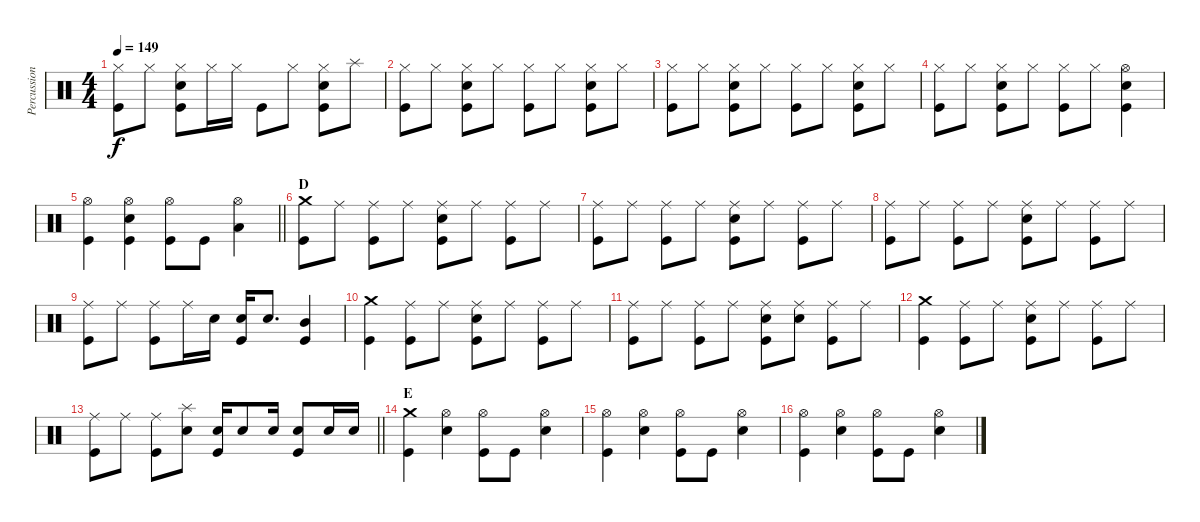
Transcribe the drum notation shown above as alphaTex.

\track ("Percussions" "Percussion") {instrument percussion}
\staff {score}
\articulation defaults
\ts (4 4)
\tempo 149
\clef neutral
\ks c
("Hi-Hat (closed)" "Kick (hit)").8{dy f} "Hi-Hat (closed)".8 ("Hi-Hat (closed)" "Electric Snare (hit)" "Kick (hit)").8 "Hi-Hat (closed)".16 "Hi-Hat (closed)".16 "Kick (hit)".8 "Hi-Hat (closed)".8 ("Hi-Hat (closed)" "Electric Snare (hit)" "Kick (hit)").8 "Splash (hit)".8 |
("Hi-Hat (closed)" "Kick (hit)").8 "Hi-Hat (closed)".8 ("Hi-Hat (closed)" "Electric Snare (hit)" "Kick (hit)").8 "Hi-Hat (closed)".8 ("Hi-Hat (closed)" "Kick (hit)").8 "Hi-Hat (closed)".8 ("Hi-Hat (closed)" "Electric Snare (hit)" "Kick (hit)").8 "Hi-Hat (closed)".8 |
("Hi-Hat (closed)" "Kick (hit)").8 "Hi-Hat (closed)".8 ("Hi-Hat (closed)" "Electric Snare (hit)" "Kick (hit)").8 "Hi-Hat (closed)".8 ("Hi-Hat (closed)" "Kick (hit)").8 "Hi-Hat (closed)".8 ("Hi-Hat (closed)" "Electric Snare (hit)" "Kick (hit)").8 "Hi-Hat (closed)".8 |
("Hi-Hat (closed)" "Kick (hit)").8 "Hi-Hat (closed)".8 ("Hi-Hat (closed)" "Electric Snare (hit)" "Kick (hit)").8 "Hi-Hat (closed)".8 ("Hi-Hat (closed)" "Kick (hit)").8 "Hi-Hat (closed)".8 ("Hi-Hat (open)" "Electric Snare (hit)" "Kick (hit)").4 |
\barLineRight lightlight
("Hi-Hat (open)" "Kick (hit)").4 ("Hi-Hat (open)" "Electric Snare (hit)" "Kick (hit)").4 ("Hi-Hat (open)" "Kick (hit)").8 "Kick (hit)".8 ("Hi-Hat (open)" "Low Tom (hit)").4 |
\section ("" "D")
("Crash medium (hit)" "Kick (hit)").8 "Ride (middle)".8 ("Ride (middle)" "Kick (hit)").8 "Ride (middle)".8 ("Ride (middle)" "Electric Snare (hit)" "Kick (hit)").8 "Ride (middle)".8 ("Ride (middle)" "Kick (hit)").8 "Ride (middle)".8 |
("Ride (middle)" "Kick (hit)").8 "Ride (middle)".8 ("Ride (middle)" "Kick (hit)").8 "Ride (middle)".8 ("Ride (middle)" "Electric Snare (hit)" "Kick (hit)").8 "Ride (middle)".8 ("Ride (middle)" "Kick (hit)").8 "Ride (middle)".8 |
("Ride (middle)" "Kick (hit)").8 "Ride (middle)".8 ("Ride (middle)" "Kick (hit)").8 "Ride (middle)".8 ("Ride (middle)" "Electric Snare (hit)" "Kick (hit)").8 "Ride (middle)".8 ("Ride (middle)" "Kick (hit)").8 "Ride (middle)".8 |
("Ride (middle)" "Kick (hit)").8 "Ride (middle)".8 ("Ride (middle)" "Kick (hit)").8 "Ride (middle)".16 "Electric Snare (hit)".16 ("Electric Snare (hit)" "Kick (hit)").16 "Electric Snare (hit)".8{d} ("Mid Tom (hit)" "Kick (hit)").4 |
("Crash medium (hit)" "Kick (hit)").4 ("Ride (middle)" "Kick (hit)").8 "Ride (middle)".8 ("Ride (middle)" "Electric Snare (hit)" "Kick (hit)").8 "Ride (middle)".8 ("Ride (middle)" "Kick (hit)").8 "Ride (middle)".8 |
("Ride (middle)" "Kick (hit)").8 "Ride (middle)".8 ("Ride (middle)" "Kick (hit)").8 "Ride (middle)".8 ("Ride (middle)" "Electric Snare (hit)" "Kick (hit)").8 ("Ride (middle)" "Electric Snare (hit)").8 ("Ride (middle)" "Kick (hit)").8 "Ride (middle)".8 |
("Crash medium (hit)" "Kick (hit)").4 ("Ride (middle)" "Kick (hit)").8 "Ride (middle)".8 ("Ride (middle)" "Electric Snare (hit)" "Kick (hit)").8 "Ride (middle)".8 ("Ride (middle)" "Kick (hit)").8 "Ride (middle)".8 |
\barLineRight lightlight
("Ride (middle)" "Kick (hit)").8 "Ride (middle)".8 ("Ride (middle)" "Kick (hit)").8 ("Splash (hit)" "Electric Snare (hit)").8 ("Electric Snare (hit)" "Kick (hit)").16 "Electric Snare (hit)".8 "Electric Snare (hit)".16 ("Electric Snare (hit)" "Kick (hit)").8 "Electric Snare (hit)".16 "Electric Snare (hit)".16 |
\section ("" "E")
("Crash medium (hit)" "Kick (hit)").4 ("Hi-Hat (open)" "Electric Snare (hit)").4 ("Hi-Hat (open)" "Kick (hit)").8 "Kick (hit)".8 ("Hi-Hat (open)" "Electric Snare (hit)").4 |
("Hi-Hat (open)" "Kick (hit)").4 ("Hi-Hat (open)" "Electric Snare (hit)").4 ("Hi-Hat (open)" "Kick (hit)").8 "Kick (hit)".8 ("Hi-Hat (open)" "Electric Snare (hit)").4 |
("Hi-Hat (open)" "Kick (hit)").4 ("Hi-Hat (open)" "Electric Snare (hit)").4 ("Hi-Hat (open)" "Kick (hit)").8 "Kick (hit)".8 ("Hi-Hat (open)" "Electric Snare (hit)").4
